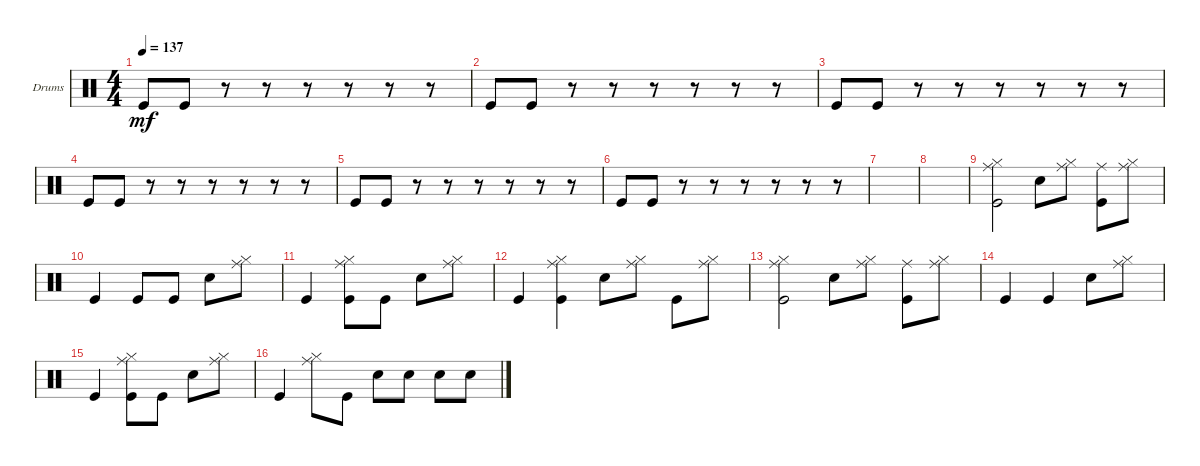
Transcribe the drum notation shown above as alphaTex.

\defaultSystemsLayout 4
\bracketExtendMode groupsimilarinstruments
\firstSystemTrackNameOrientation horizontal
\otherSystemsTrackNameOrientation horizontal
\track ("Drumkit" "Drums") {instrument percussion}
\staff {score}
\articulation defaults
\ts (4 4)
\tempo 137
\clef neutral
\ks c "Kick (hit)".8{dy mf} "Kick (hit)".8
r.8 r.8 r.8 r.8 r.8 r.8 |
"Kick (hit)".8 "Kick (hit)".8 r.8 r.8 r.8 r.8 r.8 r.8 |
"Kick (hit)".8 "Kick (hit)".8 r.8 r.8 r.8 r.8 r.8 r.8 |
"Kick (hit)".8 "Kick (hit)".8 r.8 r.8 r.8 r.8 r.8 r.8 |
"Kick (hit)".8 "Kick (hit)".8 r.8 r.8 r.8 r.8 r.8 r.8 |
"Kick (hit)".8 "Kick (hit)".8 r.8 r.8 r.8 r.8 r.8 r.8 |
|
|
("Kick (hit)" "Ride (middle)" "Hi-Hat (closed)").2 "Snare (hit) 2".8 ("Hi-Hat (closed)" "Ride (middle)").8 ("Kick (hit)" "Ride (middle)").8 ("Hi-Hat (closed)" "Ride (middle)").8 |
"Kick (hit)".4 "Kick (hit)".8 "Kick (hit)".8 "Snare (hit) 2".8 ("Hi-Hat (closed)" "Ride (middle)").8 |
"Kick (hit)".4 ("Kick (hit)" "Ride (middle)" "Hi-Hat (closed)").8 "Kick (hit)".8 "Snare (hit) 2".8 ("Hi-Hat (closed)" "Ride (middle)").8 |
"Kick (hit)".4 ("Kick (hit)" "Ride (middle)" "Hi-Hat (closed)").4 "Snare (hit) 2".8 ("Ride (middle)" "Hi-Hat (closed)").8 "Kick (hit)".8 ("Ride (middle)" "Hi-Hat (closed)").8 |
("Kick (hit)" "Ride (middle)" "Hi-Hat (closed)").2 "Snare (hit) 2".8 ("Hi-Hat (closed)" "Ride (middle)").8 ("Kick (hit)" "Ride (middle)").8 ("Hi-Hat (closed)" "Ride (middle)").8 |
"Kick (hit)".4 "Kick (hit)".4 "Snare (hit) 2".8 ("Hi-Hat (closed)" "Ride (middle)").8 |
"Kick (hit)".4 ("Kick (hit)" "Ride (middle)" "Hi-Hat (closed)").8 "Kick (hit)".8 "Snare (hit) 2".8 ("Hi-Hat (closed)" "Ride (middle)").8 |
"Kick (hit)".4 ("Ride (middle)" "Hi-Hat (closed)").8 "Kick (hit)".8 "Snare (hit) 2".8 "Snare (hit) 2".8 "Snare (hit) 2".8 "Snare (hit) 2".8
